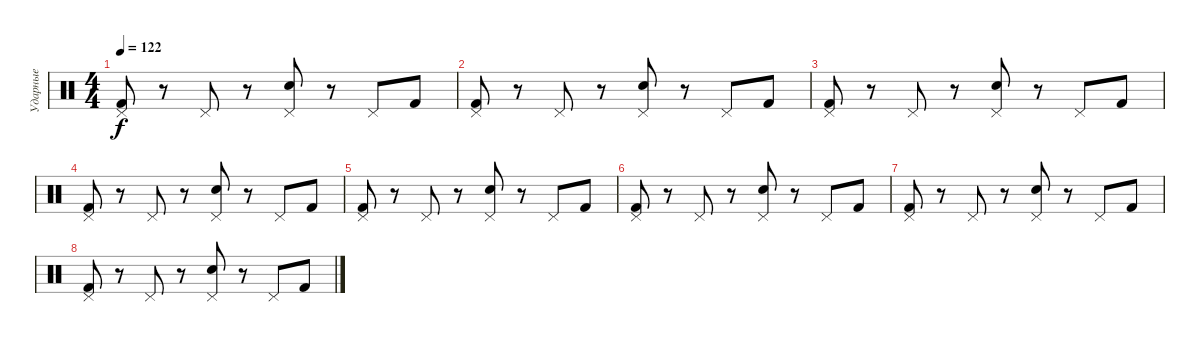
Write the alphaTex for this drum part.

\track ("Ударные" "Ударные") {instrument percussion}
\staff {score}
\articulation defaults
\ts (4 4)
\tempo 122
\clef neutral
\ks c
("Pedal Hi-Hat (hit)" "Kick (hit) 2").8{dy f} r.8 "Pedal Hi-Hat (hit)".8 r.8 ("Pedal Hi-Hat (hit)" "Snare (hit) 2").8 r.8 "Pedal Hi-Hat (hit)".8 "Kick (hit) 2".8 |
("Pedal Hi-Hat (hit)" "Kick (hit) 2").8 r.8 "Pedal Hi-Hat (hit)".8 r.8 ("Pedal Hi-Hat (hit)" "Snare (hit) 2").8 r.8 "Pedal Hi-Hat (hit)".8 "Kick (hit) 2".8 |
("Pedal Hi-Hat (hit)" "Kick (hit) 2").8 r.8 "Pedal Hi-Hat (hit)".8 r.8 ("Pedal Hi-Hat (hit)" "Snare (hit) 2").8 r.8 "Pedal Hi-Hat (hit)".8 "Kick (hit) 2".8 |
("Pedal Hi-Hat (hit)" "Kick (hit) 2").8 r.8 "Pedal Hi-Hat (hit)".8 r.8 ("Pedal Hi-Hat (hit)" "Snare (hit) 2").8 r.8 "Pedal Hi-Hat (hit)".8 "Kick (hit) 2".8 |
("Pedal Hi-Hat (hit)" "Kick (hit) 2").8 r.8 "Pedal Hi-Hat (hit)".8 r.8 ("Pedal Hi-Hat (hit)" "Snare (hit) 2").8 r.8 "Pedal Hi-Hat (hit)".8 "Kick (hit) 2".8 |
("Pedal Hi-Hat (hit)" "Kick (hit) 2").8 r.8 "Pedal Hi-Hat (hit)".8 r.8 ("Pedal Hi-Hat (hit)" "Snare (hit) 2").8 r.8 "Pedal Hi-Hat (hit)".8 "Kick (hit) 2".8 |
("Pedal Hi-Hat (hit)" "Kick (hit) 2").8 r.8 "Pedal Hi-Hat (hit)".8 r.8 ("Pedal Hi-Hat (hit)" "Snare (hit) 2").8 r.8 "Pedal Hi-Hat (hit)".8 "Kick (hit) 2".8 |
("Pedal Hi-Hat (hit)" "Kick (hit) 2").8 r.8 "Pedal Hi-Hat (hit)".8 r.8 ("Pedal Hi-Hat (hit)" "Snare (hit) 2").8 r.8 "Pedal Hi-Hat (hit)".8 "Kick (hit) 2".8
